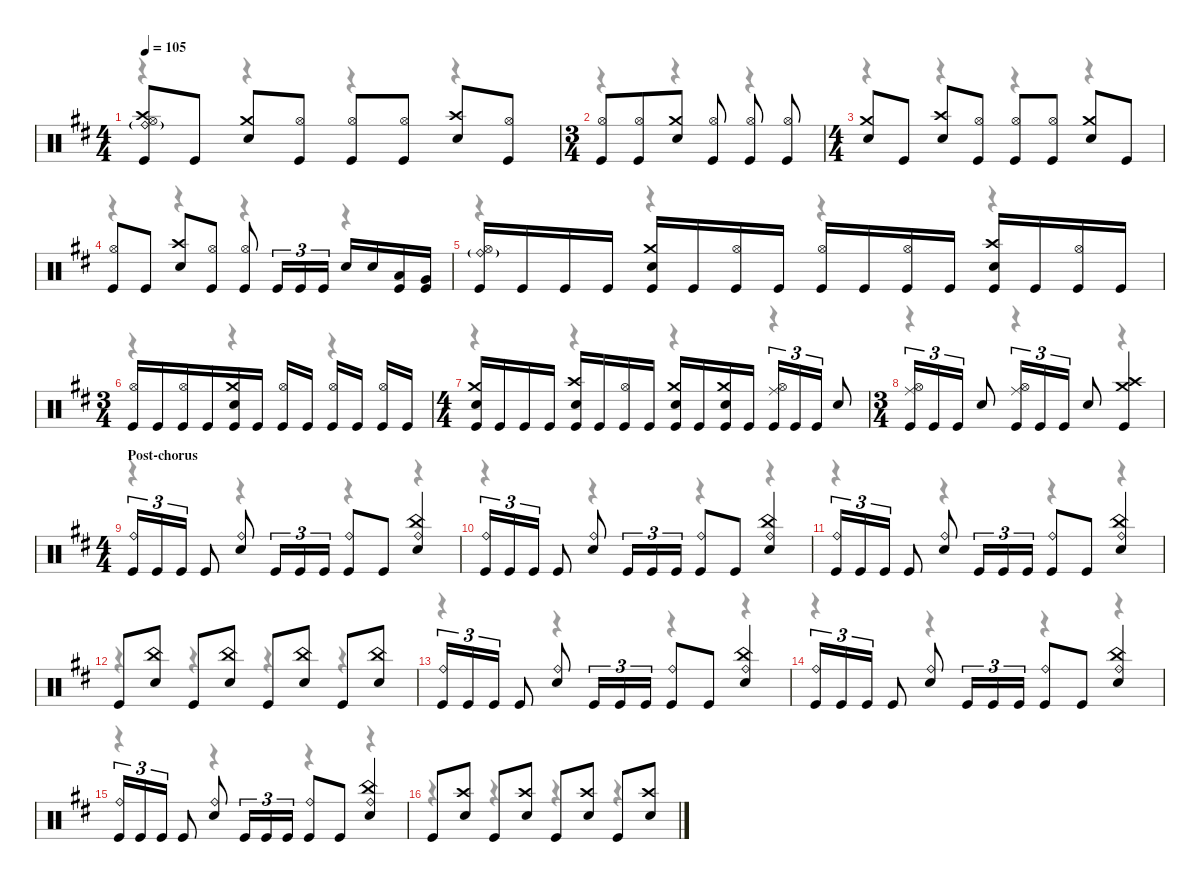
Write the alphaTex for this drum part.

\defaultSystemsLayout 4
\hideDynamics
\bracketExtendMode nobrackets
\singleTrackTrackNamePolicy hidden
\multiTrackTrackNamePolicy hidden
\firstSystemTrackNameMode fullname
\firstSystemTrackNameOrientation horizontal
\otherSystemsTrackNameOrientation horizontal
\track ("Drums" "drm.") {instrument percussion}
\staff {score}
\articulation defaults
\voice
\ts (4 4)
\beaming (8 2 2 2 2)
\tempo 105
\clef neutral
\ks bminor
("Ride (bell)"{g acc forcenatural} "Crash high (hit)"{acc forcenatural} "Hi-Hat (open)"{acc forcenatural} "Kick (hit)"{acc forcenatural}).8{dy mp beam Up} "Kick (hit)"{acc forcenatural}.8{dy f beam Up} ("Crash medium (hit)"{acc forcenatural} "Snare (hit) 2"{acc forcenatural}).8{dy mp beam Up} ("Hi-Hat (open)"{acc forcenatural} "Kick (hit)"{acc forcenatural}).8{dy pp beam Up} ("Hi-Hat (open)"{acc forcenatural} "Kick (hit)"{acc forcenatural}).8{dy mp beam Up} ("Hi-Hat (open)"{acc forcenatural} "Kick (hit)"{acc forcenatural}).8{dy pp beam Up} ("Crash high (hit)"{acc forcenatural} "Snare (hit) 2"{acc forcenatural}).8{dy mp beam Up} ("Hi-Hat (open)"{acc forcenatural} "Kick (hit)"{acc forcenatural}).8{dy pp beam Up} |
\ts (3 4)
\beaming (8 3 1 1 1)
("Hi-Hat (open)"{acc forcenatural} "Kick (hit)"{acc forcenatural}).8{dy mp beam Up} ("Hi-Hat (open)"{acc forcenatural} "Kick (hit)"{acc forcenatural}).8{dy pp beam Up} ("Crash medium (hit)"{acc forcenatural} "Snare (hit) 2"{acc forcenatural}).8{dy mp beam Up} ("Hi-Hat (open)"{acc forcenatural} "Kick (hit)"{acc forcenatural}).8{dy pp beam Up} ("Hi-Hat (open)"{acc forcenatural} "Kick (hit)"{acc forcenatural}).8{dy mp beam Up} ("Hi-Hat (open)"{acc forcenatural} "Kick (hit)"{acc forcenatural}).8{dy pp beam Up} |
\ts (4 4)
\beaming (8 2 2 2 2)
("Crash medium (hit)"{acc forcenatural} "Snare (hit) 2"{acc forcenatural}).8{dy mp beam Up} "Kick (hit)"{acc forcenatural}.8{dy f beam Up} ("Crash high (hit)"{acc forcenatural} "Snare (hit) 2"{acc forcenatural}).8{dy mp beam Up} ("Hi-Hat (open)"{acc forcenatural} "Kick (hit)"{acc forcenatural}).8{dy pp beam Up} ("Hi-Hat (open)"{acc forcenatural} "Kick (hit)"{acc forcenatural}).8{dy mp beam Up} ("Hi-Hat (open)"{acc forcenatural} "Kick (hit)"{acc forcenatural}).8{dy pp beam Up} ("Crash medium (hit)"{acc forcenatural} "Snare (hit) 2"{acc forcenatural}).8{dy mp beam Up} "Kick (hit)"{acc forcenatural}.8{dy f beam Up} |
("Hi-Hat (open)"{acc forcenatural} "Kick (hit)"{acc forcenatural}).8{dy mp beam Up} "Kick (hit)"{acc forcenatural}.8{dy f beam Up} ("Crash high (hit)"{acc forcenatural} "Snare (hit) 2"{acc forcenatural}).8{dy mp beam Up} ("Hi-Hat (open)"{acc forcenatural} "Kick (hit)"{acc forcenatural}).8{dy pp beam Up} ("Hi-Hat (open)"{acc forcenatural} "Kick (hit)"{acc forcenatural}).8{dy mp beam Up} "Kick (hit)"{acc forcenatural}.16{tu (3 2) dy f beam Up} "Kick (hit)"{acc forcenatural}.16{tu (3 2) beam Up} "Kick (hit)"{acc forcenatural}.16{tu (3 2) beam Up} "Snare (hit) 2"{acc forcenatural}.16{beam Up} "Snare (hit) 2"{acc forcenatural}.16{beam Up} ("Low Tom (hit)"{acc forcenatural} "Kick (hit)"{acc forcenatural}).16{dy mp beam Up} ("Very Low Tom (hit)"{acc forcenatural} "Kick (hit)"{acc forcenatural}).16{beam Up} |
("Ride (bell)"{g acc forcenatural} "Hi-Hat (open)"{acc forcenatural} "Kick (hit)"{acc forcenatural}).16{beam Up} "Kick (hit)"{acc forcenatural}.16{dy f beam Up} "Kick (hit)"{acc forcenatural}.16{beam Up} "Kick (hit)"{acc forcenatural}.16{beam Up} ("Crash medium (hit)"{acc forcenatural} "Snare (hit) 2"{acc forcenatural} "Kick (hit)"{acc forcenatural}).16{dy mp beam Up} "Kick (hit)"{acc forcenatural}.16{dy f beam Up} ("Hi-Hat (open)"{acc forcenatural} "Kick (hit)"{acc forcenatural}).16{dy pp beam Up} "Kick (hit)"{acc forcenatural}.16{dy f beam Up} ("Hi-Hat (open)"{acc forcenatural} "Kick (hit)"{acc forcenatural}).16{dy mp beam Up} "Kick (hit)"{acc forcenatural}.16{dy f beam Up} ("Hi-Hat (open)"{acc forcenatural} "Kick (hit)"{acc forcenatural}).16{dy pp beam Up} "Kick (hit)"{acc forcenatural}.16{dy f beam Up} ("Crash high (hit)"{acc forcenatural} "Snare (hit) 2"{acc forcenatural} "Kick (hit)"{acc forcenatural}).16{dy mp beam Up} "Kick (hit)"{acc forcenatural}.16{dy f beam Up} ("Hi-Hat (open)"{acc forcenatural} "Kick (hit)"{acc forcenatural}).16{dy pp beam Up} "Kick (hit)"{acc forcenatural}.16{dy f beam Up} |
\ts (3 4)
\beaming (8 3 1 1 1)
("Hi-Hat (open)"{acc forcenatural} "Kick (hit)"{acc forcenatural}).16{dy mp beam Up} "Kick (hit)"{acc forcenatural}.16{dy f beam Up} ("Hi-Hat (open)"{acc forcenatural} "Kick (hit)"{acc forcenatural}).16{dy pp beam Up} "Kick (hit)"{acc forcenatural}.16{dy f beam Up} ("Crash medium (hit)"{acc forcenatural} "Snare (hit) 2"{acc forcenatural} "Kick (hit)"{acc forcenatural}).16{dy mp beam Up} "Kick (hit)"{acc forcenatural}.16{dy f beam Up} ("Hi-Hat (open)"{acc forcenatural} "Kick (hit)"{acc forcenatural}).16{dy pp beam Up} "Kick (hit)"{acc forcenatural}.16{dy f beam Up} ("Hi-Hat (open)"{acc forcenatural} "Kick (hit)"{acc forcenatural}).16{dy mp beam Up} "Kick (hit)"{acc forcenatural}.16{dy f beam Up} ("Hi-Hat (open)"{acc forcenatural} "Kick (hit)"{acc forcenatural}).16{dy pp beam Up} "Kick (hit)"{acc forcenatural}.16{dy f beam Up} |
\ts (4 4)
\beaming (8 2 2 2 2)
("Crash medium (hit)"{acc forcenatural} "Snare (hit) 2"{acc forcenatural} "Kick (hit)"{acc forcenatural}).16{dy mp beam Up} "Kick (hit)"{acc forcenatural}.16{dy f beam Up} "Kick (hit)"{acc forcenatural}.16{beam Up} "Kick (hit)"{acc forcenatural}.16{beam Up} ("Crash high (hit)"{acc forcenatural} "Snare (hit) 2"{acc forcenatural} "Kick (hit)"{acc forcenatural}).16{dy mp beam Up} "Kick (hit)"{acc forcenatural}.16{dy f beam Up} ("Hi-Hat (open)"{acc forcenatural} "Kick (hit)"{acc forcenatural}).16{dy pp beam Up} "Kick (hit)"{acc forcenatural}.16{dy f beam Up} ("Crash medium (hit)"{acc forcenatural} "Snare (hit) 2"{acc forcenatural} "Kick (hit)"{acc forcenatural}).16{dy mp beam Up} "Kick (hit)"{acc forcenatural}.16{dy f beam Up} ("Crash medium (hit)"{acc forcenatural} "Snare (hit) 2"{acc forcenatural} "Kick (hit)"{acc forcenatural}).16{dy mp beam Up} "Kick (hit)"{acc forcenatural}.16{dy f beam Up} ("Ride (middle)"{acc forcenatural} "Hi-Hat (open)"{acc forcenatural} "Kick (hit)"{acc forcenatural}).16{tu (3 2) dy mf beam Up} "Kick (hit)"{acc forcenatural}.16{tu (3 2) dy f beam Up} "Kick (hit)"{acc forcenatural}.16{tu (3 2) beam Up} "Snare (hit) 2"{acc forcenatural}.8{beam Up} |
\ts (3 4)
\beaming (8 3 1 1 1)
("Ride (middle)"{acc forcenatural} "Hi-Hat (open)"{acc forcenatural} "Kick (hit)"{acc forcenatural}).16{tu (3 2) dy mf beam Up} "Kick (hit)"{acc forcenatural}.16{tu (3 2) dy f beam Up} "Kick (hit)"{acc forcenatural}.16{tu (3 2) beam Up} "Snare (hit) 2"{acc forcenatural}.8{beam Up} ("Ride (middle)"{acc forcenatural} "Hi-Hat (open)"{acc forcenatural} "Kick (hit)"{acc forcenatural}).16{tu (3 2) dy mf beam Up} "Kick (hit)"{acc forcenatural}.16{tu (3 2) dy f beam Up} "Kick (hit)"{acc forcenatural}.16{tu (3 2) beam Up} "Snare (hit) 2"{acc forcenatural}.8{beam Up} ("Crash high (hit)"{acc forcenatural} "Crash medium (hit)"{acc forcenatural} "Kick (hit)"{acc forcenatural}).4{dy mp beam Up} |
\ts (4 4)
\beaming (8 2 2 2 2)
\section ("" "Post-chorus")
("Ride (bell)"{acc forcenatural} "Kick (hit)"{acc forcenatural}).16{tu (3 2) dy mf beam Up} "Kick (hit)"{acc forcenatural}.16{tu (3 2) dy f beam Up} "Kick (hit)"{acc forcenatural}.16{tu (3 2) beam Up} "Kick (hit)"{acc forcenatural}.8{beam Up} ("Ride (bell)"{acc forcenatural} "Snare (hit) 2"{acc forcenatural}).8{dy mf beam Up} "Kick (hit)"{acc forcenatural}.16{tu (3 2) dy f beam Up} "Kick (hit)"{acc forcenatural}.16{tu (3 2) beam Up} "Kick (hit)"{acc forcenatural}.16{tu (3 2) beam Up} ("Ride (bell)"{acc forcenatural} "Kick (hit)"{acc forcenatural}).8{dy mf beam Up} "Kick (hit)"{acc forcenatural}.8{dy f beam Up} ("Ride (bell)"{acc forcenatural} "China (hit)"{acc forcenatural} "Snare (hit) 2"{acc forcenatural}).4{dy mf beam Up} |
("Ride (bell)"{acc forcenatural} "Kick (hit)"{acc forcenatural}).16{tu (3 2) beam Up} "Kick (hit)"{acc forcenatural}.16{tu (3 2) dy f beam Up} "Kick (hit)"{acc forcenatural}.16{tu (3 2) beam Up} "Kick (hit)"{acc forcenatural}.8{beam Up} ("Ride (bell)"{acc forcenatural} "Snare (hit) 2"{acc forcenatural}).8{dy mf beam Up} "Kick (hit)"{acc forcenatural}.16{tu (3 2) dy f beam Up} "Kick (hit)"{acc forcenatural}.16{tu (3 2) beam Up} "Kick (hit)"{acc forcenatural}.16{tu (3 2) beam Up} ("Ride (bell)"{acc forcenatural} "Kick (hit)"{acc forcenatural}).8{dy mf beam Up} "Kick (hit)"{acc forcenatural}.8{dy f beam Up} ("Ride (bell)"{acc forcenatural} "China (hit)"{acc forcenatural} "Snare (hit) 2"{acc forcenatural}).4{dy mf beam Up} |
("Ride (bell)"{acc forcenatural} "Kick (hit)"{acc forcenatural}).16{tu (3 2) beam Up} "Kick (hit)"{acc forcenatural}.16{tu (3 2) dy f beam Up} "Kick (hit)"{acc forcenatural}.16{tu (3 2) beam Up} "Kick (hit)"{acc forcenatural}.8{beam Up} ("Ride (bell)"{acc forcenatural} "Snare (hit) 2"{acc forcenatural}).8{dy mf beam Up} "Kick (hit)"{acc forcenatural}.16{tu (3 2) dy f beam Up} "Kick (hit)"{acc forcenatural}.16{tu (3 2) beam Up} "Kick (hit)"{acc forcenatural}.16{tu (3 2) beam Up} ("Ride (bell)"{acc forcenatural} "Kick (hit)"{acc forcenatural}).8{dy mf beam Up} "Kick (hit)"{acc forcenatural}.8{dy f beam Up} ("Ride (bell)"{acc forcenatural} "China (hit)"{acc forcenatural} "Snare (hit) 2"{acc forcenatural}).4{dy mf beam Up} |
"Kick (hit)"{acc forcenatural}.8{dy f beam Up} ("China (hit)"{acc forcenatural} "Snare (hit) 2"{acc forcenatural}).8{beam Up} "Kick (hit)"{acc forcenatural}.8{beam Up} ("China (hit)"{acc forcenatural} "Snare (hit) 2"{acc forcenatural}).8{beam Up} "Kick (hit)"{acc forcenatural}.8{beam Up} ("China (hit)"{acc forcenatural} "Snare (hit) 2"{acc forcenatural}).8{beam Up} "Kick (hit)"{acc forcenatural}.8{beam Up} ("China (hit)"{acc forcenatural} "Snare (hit) 2"{acc forcenatural}).8{beam Up} |
("Ride (bell)"{acc forcenatural} "Kick (hit)"{acc forcenatural}).16{tu (3 2) dy mf beam Up} "Kick (hit)"{acc forcenatural}.16{tu (3 2) dy f beam Up} "Kick (hit)"{acc forcenatural}.16{tu (3 2) beam Up} "Kick (hit)"{acc forcenatural}.8{beam Up} ("Ride (bell)"{acc forcenatural} "Snare (hit) 2"{acc forcenatural}).8{dy mf beam Up} "Kick (hit)"{acc forcenatural}.16{tu (3 2) dy f beam Up} "Kick (hit)"{acc forcenatural}.16{tu (3 2) beam Up} "Kick (hit)"{acc forcenatural}.16{tu (3 2) beam Up} ("Ride (bell)"{acc forcenatural} "Kick (hit)"{acc forcenatural}).8{dy mf beam Up} "Kick (hit)"{acc forcenatural}.8{dy f beam Up} ("Ride (bell)"{acc forcenatural} "China (hit)"{acc forcenatural} "Snare (hit) 2"{acc forcenatural}).4{dy mf beam Up} |
("Ride (bell)"{acc forcenatural} "Kick (hit)"{acc forcenatural}).16{tu (3 2) beam Up} "Kick (hit)"{acc forcenatural}.16{tu (3 2) dy f beam Up} "Kick (hit)"{acc forcenatural}.16{tu (3 2) beam Up} "Kick (hit)"{acc forcenatural}.8{beam Up} ("Ride (bell)"{acc forcenatural} "Snare (hit) 2"{acc forcenatural}).8{dy mf beam Up} "Kick (hit)"{acc forcenatural}.16{tu (3 2) dy f beam Up} "Kick (hit)"{acc forcenatural}.16{tu (3 2) beam Up} "Kick (hit)"{acc forcenatural}.16{tu (3 2) beam Up} ("Ride (bell)"{acc forcenatural} "Kick (hit)"{acc forcenatural}).8{dy mf beam Up} "Kick (hit)"{acc forcenatural}.8{dy f beam Up} ("Ride (bell)"{acc forcenatural} "China (hit)"{acc forcenatural} "Snare (hit) 2"{acc forcenatural}).4{dy mf beam Up} |
("Ride (bell)"{acc forcenatural} "Kick (hit)"{acc forcenatural}).16{tu (3 2) beam Up} "Kick (hit)"{acc forcenatural}.16{tu (3 2) dy f beam Up} "Kick (hit)"{acc forcenatural}.16{tu (3 2) beam Up} "Kick (hit)"{acc forcenatural}.8{beam Up} ("Ride (bell)"{acc forcenatural} "Snare (hit) 2"{acc forcenatural}).8{dy mf beam Up} "Kick (hit)"{acc forcenatural}.16{tu (3 2) dy f beam Up} "Kick (hit)"{acc forcenatural}.16{tu (3 2) beam Up} "Kick (hit)"{acc forcenatural}.16{tu (3 2) beam Up} ("Ride (bell)"{acc forcenatural} "Kick (hit)"{acc forcenatural}).8{dy mf beam Up} "Kick (hit)"{acc forcenatural}.8{dy f beam Up} ("Ride (bell)"{acc forcenatural} "China (hit)"{acc forcenatural} "Snare (hit) 2"{acc forcenatural}).4{dy mf beam Up} |
"Kick (hit)"{acc forcenatural}.8{dy f beam Up} ("Crash high (hit)"{acc forcenatural} "Snare (hit) 2"{acc forcenatural}).8{dy mf beam Up} "Kick (hit)"{acc forcenatural}.8{dy f beam Up} ("Crash high (hit)"{acc forcenatural} "Snare (hit) 2"{acc forcenatural}).8{dy mf beam Up} "Kick (hit)"{acc forcenatural}.8{dy f beam Up} ("Crash high (hit)"{acc forcenatural} "Snare (hit) 2"{acc forcenatural}).8{dy mf beam Up} "Kick (hit)"{acc forcenatural}.8{dy f beam Up} ("Crash high (hit)"{acc forcenatural} "Snare (hit) 2"{acc forcenatural}).8{dy mf beam Up}
\voice
\clef neutral
\ottava regular
\simile none
\ks bminor
r.4{dy mf beam Down} r.4{beam Down} r.4{beam Down} r.4{beam Down} |
r.4{beam Down} r.4{beam Down} r.4{beam Down} |
r.4{beam Down} r.4{beam Down} r.4{beam Down} r.4{beam Down} |
r.4{beam Down} r.4{beam Down} r.4{beam Down} r.4{beam Down} |
r.4{beam Down} r.4{beam Down} r.4{beam Down} r.4{beam Down} |
r.4{beam Down} r.4{beam Down} r.4{beam Down} |
r.4{beam Down} r.4{beam Down} r.4{beam Down} r.4{beam Down} |
r.4{beam Down} r.4{beam Down} r.4{beam Down} |
r.4{beam Down} r.4{beam Down} r.4{beam Down} r.4{beam Down} |
r.4{beam Down} r.4{beam Down} r.4{beam Down} r.4{beam Down} |
r.4{beam Down} r.4{beam Down} r.4{beam Down} r.4{beam Down} |
r.4{beam Down} r.4{beam Down} r.4{beam Down} r.4{beam Down} |
r.4{beam Down} r.4{beam Down} r.4{beam Down} r.4{beam Down} |
r.4{beam Down} r.4{beam Down} r.4{beam Down} r.4{beam Down} |
r.4{beam Down} r.4{beam Down} r.4{beam Down} r.4{beam Down} |
r.4{beam Down} r.4{beam Down} r.4{beam Down} r.4{beam Down}
